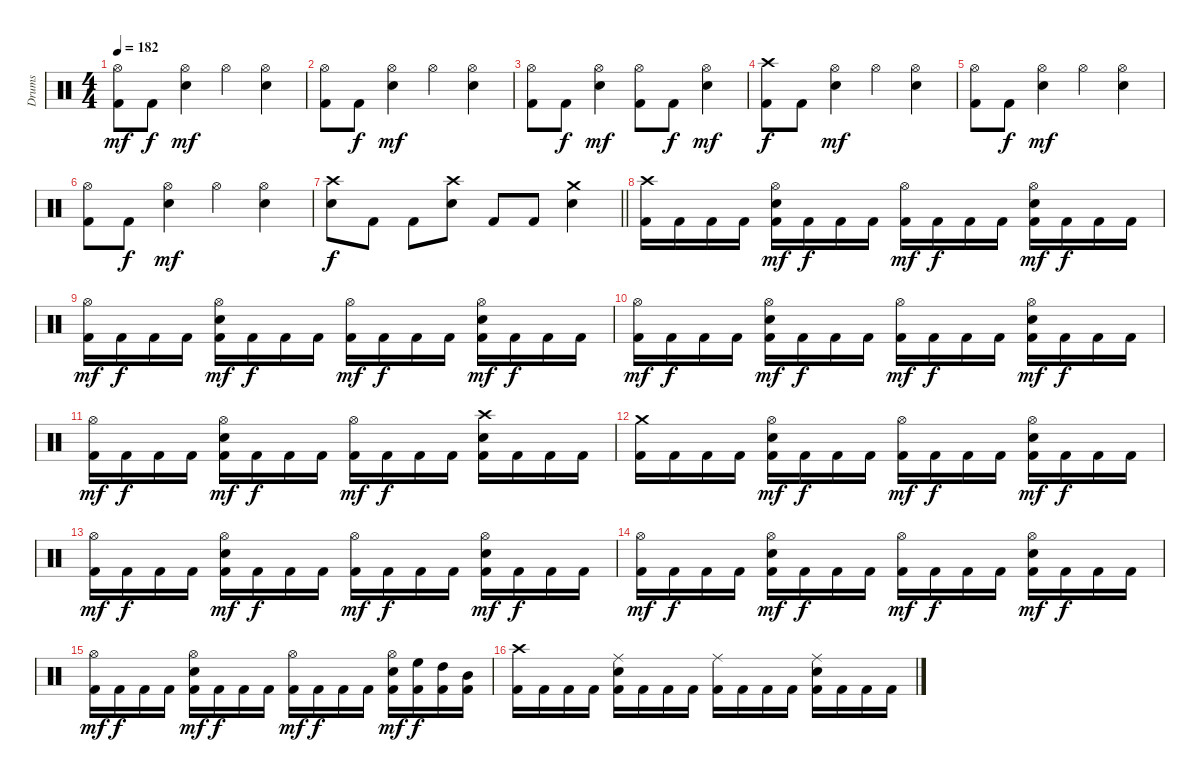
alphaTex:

\track ("Drums" "Drums") {instrument percussion}
\staff {score}
\articulation defaults
\ts (4 4)
\tempo 182
\clef neutral
\ks c
("Hi-Hat (open)" "Kick (hit) 2").8{dy mf} "Kick (hit) 2".8{dy f} ("Hi-Hat (open)" "Electric Snare (hit)").4{dy mf} "Hi-Hat (open)".4 ("Hi-Hat (open)" "Electric Snare (hit)").4 |
("Hi-Hat (open)" "Kick (hit) 2").8 "Kick (hit) 2".8{dy f} ("Hi-Hat (open)" "Electric Snare (hit)").4{dy mf} "Hi-Hat (open)".4 ("Hi-Hat (open)" "Electric Snare (hit)").4 |
("Hi-Hat (open)" "Kick (hit) 2").8 "Kick (hit) 2".8{dy f} ("Hi-Hat (open)" "Electric Snare (hit)").4{dy mf} ("Hi-Hat (open)" "Kick (hit) 2").8 "Kick (hit) 2".8{dy f} ("Hi-Hat (open)" "Electric Snare (hit)").4{dy mf} |
("Crash high (hit)" "Kick (hit) 2").8{dy f} "Kick (hit) 2".8 ("Hi-Hat (open)" "Electric Snare (hit)").4{dy mf} "Hi-Hat (open)".4 ("Hi-Hat (open)" "Electric Snare (hit)").4 |
("Hi-Hat (open)" "Kick (hit) 2").8 "Kick (hit) 2".8{dy f} ("Hi-Hat (open)" "Electric Snare (hit)").4{dy mf} "Hi-Hat (open)".4 ("Hi-Hat (open)" "Electric Snare (hit)").4 |
("Hi-Hat (open)" "Kick (hit) 2").8 "Kick (hit) 2".8{dy f} ("Hi-Hat (open)" "Electric Snare (hit)").4{dy mf} "Hi-Hat (open)".4 ("Hi-Hat (open)" "Electric Snare (hit)").4 |
\barLineRight lightlight
("Crash high (hit)" "Electric Snare (hit)").8{dy f} "Kick (hit) 2".8 "Kick (hit) 2".8 ("Crash high (hit)" "Electric Snare (hit)").8 "Kick (hit) 2".8 "Kick (hit) 2".8 ("Crash medium (hit)" "Electric Snare (hit)").4 |
("Crash high (hit)" "Kick (hit) 2").16 "Kick (hit) 2".16 "Kick (hit) 2".16 "Kick (hit) 2".16 ("Hi-Hat (open)" "Electric Snare (hit)" "Kick (hit) 2").16{dy mf} "Kick (hit) 2".16{dy f} "Kick (hit) 2".16 "Kick (hit) 2".16 ("Hi-Hat (open)" "Kick (hit) 2").16{dy mf} "Kick (hit) 2".16{dy f} "Kick (hit) 2".16 "Kick (hit) 2".16 ("Hi-Hat (open)" "Electric Snare (hit)" "Kick (hit) 2").16{dy mf} "Kick (hit) 2".16{dy f} "Kick (hit) 2".16 "Kick (hit) 2".16 |
("Hi-Hat (open)" "Kick (hit) 2").16{dy mf} "Kick (hit) 2".16{dy f} "Kick (hit) 2".16 "Kick (hit) 2".16 ("Hi-Hat (open)" "Electric Snare (hit)" "Kick (hit) 2").16{dy mf} "Kick (hit) 2".16{dy f} "Kick (hit) 2".16 "Kick (hit) 2".16 ("Hi-Hat (open)" "Kick (hit) 2").16{dy mf} "Kick (hit) 2".16{dy f} "Kick (hit) 2".16 "Kick (hit) 2".16 ("Hi-Hat (open)" "Electric Snare (hit)" "Kick (hit) 2").16{dy mf} "Kick (hit) 2".16{dy f} "Kick (hit) 2".16 "Kick (hit) 2".16 |
("Hi-Hat (open)" "Kick (hit) 2").16{dy mf} "Kick (hit) 2".16{dy f} "Kick (hit) 2".16 "Kick (hit) 2".16 ("Hi-Hat (open)" "Electric Snare (hit)" "Kick (hit) 2").16{dy mf} "Kick (hit) 2".16{dy f} "Kick (hit) 2".16 "Kick (hit) 2".16 ("Hi-Hat (open)" "Kick (hit) 2").16{dy mf} "Kick (hit) 2".16{dy f} "Kick (hit) 2".16 "Kick (hit) 2".16 ("Hi-Hat (open)" "Electric Snare (hit)" "Kick (hit) 2").16{dy mf} "Kick (hit) 2".16{dy f} "Kick (hit) 2".16 "Kick (hit) 2".16 |
("Hi-Hat (open)" "Kick (hit) 2").16{dy mf} "Kick (hit) 2".16{dy f} "Kick (hit) 2".16 "Kick (hit) 2".16 ("Hi-Hat (open)" "Electric Snare (hit)" "Kick (hit) 2").16{dy mf} "Kick (hit) 2".16{dy f} "Kick (hit) 2".16 "Kick (hit) 2".16 ("Hi-Hat (open)" "Kick (hit) 2").16{dy mf} "Kick (hit) 2".16{dy f} "Kick (hit) 2".16 "Kick (hit) 2".16 ("Crash high (hit)" "Electric Snare (hit)" "Kick (hit) 2").16 "Kick (hit) 2".16 "Kick (hit) 2".16 "Kick (hit) 2".16 |
("Crash medium (hit)" "Kick (hit) 2").16 "Kick (hit) 2".16 "Kick (hit) 2".16 "Kick (hit) 2".16 ("Hi-Hat (open)" "Electric Snare (hit)" "Kick (hit) 2").16{dy mf} "Kick (hit) 2".16{dy f} "Kick (hit) 2".16 "Kick (hit) 2".16 ("Hi-Hat (open)" "Kick (hit) 2").16{dy mf} "Kick (hit) 2".16{dy f} "Kick (hit) 2".16 "Kick (hit) 2".16 ("Hi-Hat (open)" "Electric Snare (hit)" "Kick (hit) 2").16{dy mf} "Kick (hit) 2".16{dy f} "Kick (hit) 2".16 "Kick (hit) 2".16 |
("Hi-Hat (open)" "Kick (hit) 2").16{dy mf} "Kick (hit) 2".16{dy f} "Kick (hit) 2".16 "Kick (hit) 2".16 ("Hi-Hat (open)" "Electric Snare (hit)" "Kick (hit) 2").16{dy mf} "Kick (hit) 2".16{dy f} "Kick (hit) 2".16 "Kick (hit) 2".16 ("Hi-Hat (open)" "Kick (hit) 2").16{dy mf} "Kick (hit) 2".16{dy f} "Kick (hit) 2".16 "Kick (hit) 2".16 ("Hi-Hat (open)" "Electric Snare (hit)" "Kick (hit) 2").16{dy mf} "Kick (hit) 2".16{dy f} "Kick (hit) 2".16 "Kick (hit) 2".16 |
("Hi-Hat (open)" "Kick (hit) 2").16{dy mf} "Kick (hit) 2".16{dy f} "Kick (hit) 2".16 "Kick (hit) 2".16 ("Hi-Hat (open)" "Electric Snare (hit)" "Kick (hit) 2").16{dy mf} "Kick (hit) 2".16{dy f} "Kick (hit) 2".16 "Kick (hit) 2".16 ("Hi-Hat (open)" "Kick (hit) 2").16{dy mf} "Kick (hit) 2".16{dy f} "Kick (hit) 2".16 "Kick (hit) 2".16 ("Hi-Hat (open)" "Electric Snare (hit)" "Kick (hit) 2").16{dy mf} "Kick (hit) 2".16{dy f} "Kick (hit) 2".16 "Kick (hit) 2".16 |
("Hi-Hat (open)" "Kick (hit) 2").16{dy mf} "Kick (hit) 2".16{dy f} "Kick (hit) 2".16 "Kick (hit) 2".16 ("Hi-Hat (open)" "Electric Snare (hit)" "Kick (hit) 2").16{dy mf} "Kick (hit) 2".16{dy f} "Kick (hit) 2".16 "Kick (hit) 2".16 ("Hi-Hat (open)" "Kick (hit) 2").16{dy mf} "Kick (hit) 2".16{dy f} "Kick (hit) 2".16 "Kick (hit) 2".16 ("Hi-Hat (open)" "Electric Snare (hit)" "Kick (hit) 2").16{dy mf} ("High Floor Tom (hit)" "Kick (hit) 2").16{dy f} ("High Tom (hit)" "Kick (hit) 2").16 ("Mid Tom (hit)" "Kick (hit) 2").16 |
("Crash high (hit)" "Kick (hit) 2").16 "Kick (hit) 2".16 "Kick (hit) 2".16 "Kick (hit) 2".16 ("Ride (middle)" "Electric Snare (hit)" "Kick (hit) 2").16 "Kick (hit) 2".16 "Kick (hit) 2".16 "Kick (hit) 2".16 ("Ride (middle)" "Kick (hit) 2").16 "Kick (hit) 2".16 "Kick (hit) 2".16 "Kick (hit) 2".16 ("Ride (middle)" "Electric Snare (hit)" "Kick (hit) 2").16 "Kick (hit) 2".16 "Kick (hit) 2".16 "Kick (hit) 2".16
